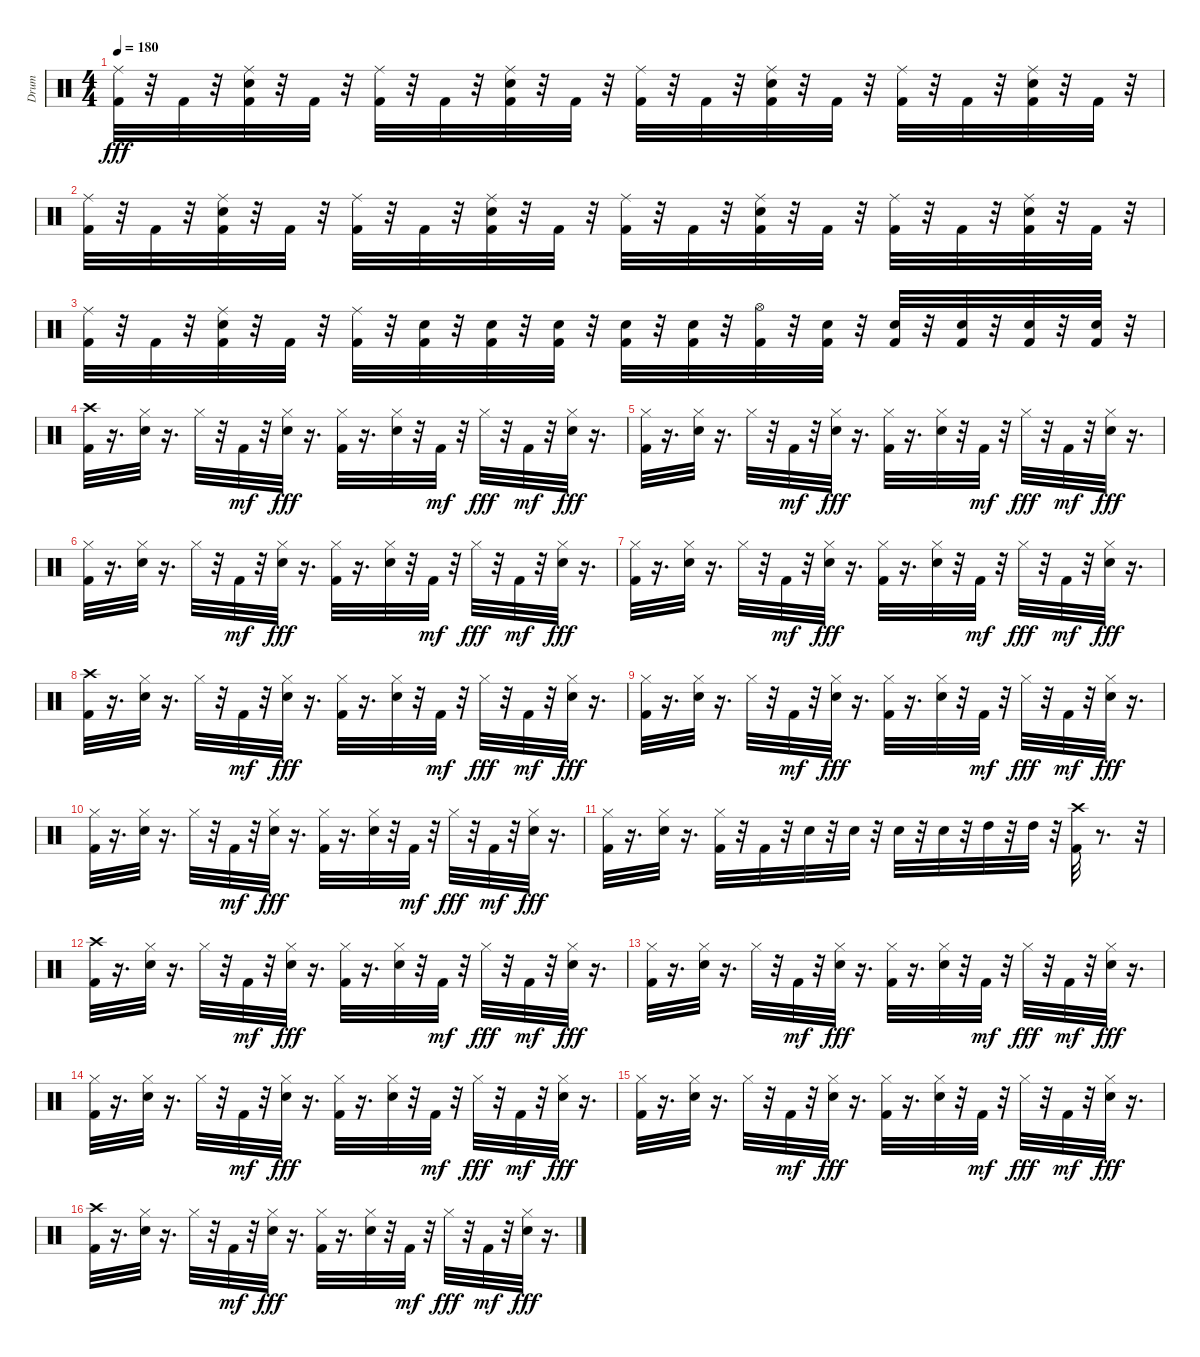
\track ("Drum" "Drum") {instrument percussion}
\staff {score}
\articulation defaults
\ts (4 4)
\tempo 180
\clef neutral
\ks c
("Kick (hit) 2" "Ride (middle)").32{dy fff} r.32 "Kick (hit) 2".32 r.32 ("Kick (hit) 2" "Snare (hit) 2" "Ride (middle)").32 r.32 "Kick (hit) 2".32 r.32 ("Kick (hit) 2" "Ride (middle)").32 r.32 "Kick (hit) 2".32 r.32 ("Kick (hit) 2" "Snare (hit) 2" "Ride (middle)").32 r.32 "Kick (hit) 2".32 r.32 ("Kick (hit) 2" "Ride (middle)").32 r.32 "Kick (hit) 2".32 r.32 ("Kick (hit) 2" "Snare (hit) 2" "Ride (middle)").32 r.32 "Kick (hit) 2".32 r.32 ("Kick (hit) 2" "Ride (middle)").32 r.32 "Kick (hit) 2".32 r.32 ("Kick (hit) 2" "Snare (hit) 2" "Ride (middle)").32 r.32 "Kick (hit) 2".32 r.32 |
("Kick (hit) 2" "Ride (middle)").32 r.32 "Kick (hit) 2".32 r.32 ("Kick (hit) 2" "Snare (hit) 2" "Ride (middle)").32 r.32 "Kick (hit) 2".32 r.32 ("Kick (hit) 2" "Ride (middle)").32 r.32 "Kick (hit) 2".32 r.32 ("Kick (hit) 2" "Snare (hit) 2" "Ride (middle)").32 r.32 "Kick (hit) 2".32 r.32 ("Kick (hit) 2" "Ride (middle)").32 r.32 "Kick (hit) 2".32 r.32 ("Kick (hit) 2" "Snare (hit) 2" "Ride (middle)").32 r.32 "Kick (hit) 2".32 r.32 ("Kick (hit) 2" "Ride (middle)").32 r.32 "Kick (hit) 2".32 r.32 ("Kick (hit) 2" "Snare (hit) 2" "Ride (middle)").32 r.32 "Kick (hit) 2".32 r.32 |
("Kick (hit) 2" "Ride (middle)").32 r.32 "Kick (hit) 2".32 r.32 ("Kick (hit) 2" "Snare (hit) 2" "Ride (middle)").32 r.32 "Kick (hit) 2".32 r.32 ("Kick (hit) 2" "Ride (middle)").32 r.32 ("Kick (hit) 2" "Snare (hit) 2").32 r.32 ("Kick (hit) 2" "Snare (hit) 2").32 r.32 ("Kick (hit) 2" "Snare (hit) 2").32 r.32 ("Kick (hit) 2" "Snare (hit) 2").32 r.32 ("Kick (hit) 2" "Snare (hit) 2").32 r.32 ("Kick (hit) 2" "Hi-Hat (open)").32 r.32 ("Kick (hit) 2" "Snare (hit) 2").32 r.32 ("Kick (hit) 2" "Snare (hit) 2").32 r.32 ("Kick (hit) 2" "Snare (hit) 2").32 r.32 ("Kick (hit) 2" "Snare (hit) 2").32 r.32 ("Kick (hit) 2" "Snare (hit) 2").32 r.32 |
("Kick (hit) 2" "Crash high (hit)").32 r.16{d} ("Hi-Hat (closed)" "Snare (hit) 2").32 r.16{d} "Hi-Hat (closed)".32 r.32 "Kick (hit) 2".32{dy mf} r.32 ("Hi-Hat (closed)" "Snare (hit) 2").32{dy fff} r.16{d} ("Kick (hit) 2" "Hi-Hat (closed)").32 r.16{d} ("Hi-Hat (closed)" "Snare (hit) 2").32 r.32 "Kick (hit) 2".32{dy mf} r.32 "Hi-Hat (closed)".32{dy fff} r.32 "Kick (hit) 2".32{dy mf} r.32 ("Hi-Hat (closed)" "Snare (hit) 2").32{dy fff} r.16{d} |
("Kick (hit) 2" "Hi-Hat (closed)").32 r.16{d} ("Hi-Hat (closed)" "Snare (hit) 2").32 r.16{d} "Hi-Hat (closed)".32 r.32 "Kick (hit) 2".32{dy mf} r.32 ("Hi-Hat (closed)" "Snare (hit) 2").32{dy fff} r.16{d} ("Kick (hit) 2" "Hi-Hat (closed)").32 r.16{d} ("Hi-Hat (closed)" "Snare (hit) 2").32 r.32 "Kick (hit) 2".32{dy mf} r.32 "Hi-Hat (closed)".32{dy fff} r.32 "Kick (hit) 2".32{dy mf} r.32 ("Hi-Hat (closed)" "Snare (hit) 2").32{dy fff} r.16{d} |
("Kick (hit) 2" "Hi-Hat (closed)").32 r.16{d} ("Hi-Hat (closed)" "Snare (hit) 2").32 r.16{d} "Hi-Hat (closed)".32 r.32 "Kick (hit) 2".32{dy mf} r.32 ("Hi-Hat (closed)" "Snare (hit) 2").32{dy fff} r.16{d} ("Kick (hit) 2" "Hi-Hat (closed)").32 r.16{d} ("Hi-Hat (closed)" "Snare (hit) 2").32 r.32 "Kick (hit) 2".32{dy mf} r.32 "Hi-Hat (closed)".32{dy fff} r.32 "Kick (hit) 2".32{dy mf} r.32 ("Hi-Hat (closed)" "Snare (hit) 2").32{dy fff} r.16{d} |
("Kick (hit) 2" "Hi-Hat (closed)").32 r.16{d} ("Hi-Hat (closed)" "Snare (hit) 2").32 r.16{d} "Hi-Hat (closed)".32 r.32 "Kick (hit) 2".32{dy mf} r.32 ("Hi-Hat (closed)" "Snare (hit) 2").32{dy fff} r.16{d} ("Kick (hit) 2" "Hi-Hat (closed)").32 r.16{d} ("Hi-Hat (closed)" "Snare (hit) 2").32 r.32 "Kick (hit) 2".32{dy mf} r.32 "Hi-Hat (closed)".32{dy fff} r.32 "Kick (hit) 2".32{dy mf} r.32 ("Hi-Hat (closed)" "Snare (hit) 2").32{dy fff} r.16{d} |
("Kick (hit) 2" "Crash high (hit)").32 r.16{d} ("Hi-Hat (closed)" "Snare (hit) 2").32 r.16{d} "Hi-Hat (closed)".32 r.32 "Kick (hit) 2".32{dy mf} r.32 ("Hi-Hat (closed)" "Snare (hit) 2").32{dy fff} r.16{d} ("Kick (hit) 2" "Hi-Hat (closed)").32 r.16{d} ("Hi-Hat (closed)" "Snare (hit) 2").32 r.32 "Kick (hit) 2".32{dy mf} r.32 "Hi-Hat (closed)".32{dy fff} r.32 "Kick (hit) 2".32{dy mf} r.32 ("Hi-Hat (closed)" "Snare (hit) 2").32{dy fff} r.16{d} |
("Kick (hit) 2" "Hi-Hat (closed)").32 r.16{d} ("Hi-Hat (closed)" "Snare (hit) 2").32 r.16{d} "Hi-Hat (closed)".32 r.32 "Kick (hit) 2".32{dy mf} r.32 ("Hi-Hat (closed)" "Snare (hit) 2").32{dy fff} r.16{d} ("Kick (hit) 2" "Hi-Hat (closed)").32 r.16{d} ("Hi-Hat (closed)" "Snare (hit) 2").32 r.32 "Kick (hit) 2".32{dy mf} r.32 "Hi-Hat (closed)".32{dy fff} r.32 "Kick (hit) 2".32{dy mf} r.32 ("Hi-Hat (closed)" "Snare (hit) 2").32{dy fff} r.16{d} |
("Kick (hit) 2" "Hi-Hat (closed)").32 r.16{d} ("Hi-Hat (closed)" "Snare (hit) 2").32 r.16{d} "Hi-Hat (closed)".32 r.32 "Kick (hit) 2".32{dy mf} r.32 ("Hi-Hat (closed)" "Snare (hit) 2").32{dy fff} r.16{d} ("Kick (hit) 2" "Hi-Hat (closed)").32 r.16{d} ("Hi-Hat (closed)" "Snare (hit) 2").32 r.32 "Kick (hit) 2".32{dy mf} r.32 "Hi-Hat (closed)".32{dy fff} r.32 "Kick (hit) 2".32{dy mf} r.32 ("Hi-Hat (closed)" "Snare (hit) 2").32{dy fff} r.16{d} |
("Kick (hit) 2" "Hi-Hat (closed)").32 r.16{d} ("Snare (hit) 2" "Hi-Hat (closed)").32 r.16{d} ("Kick (hit) 2" "Hi-Hat (closed)").32 r.32 "Kick (hit) 2".32 r.32 "Snare (hit) 2".32 r.32 "Snare (hit) 2".32 r.32 "Snare (hit) 2".32 r.32 "Snare (hit) 2".32 r.32 "High Tom (hit)".32 r.32 "High Tom (hit)".32 r.32 ("Kick (hit) 2" "Crash high (hit)").32 r.8{d} r.32 |
("Kick (hit) 2" "Crash high (hit)").32 r.16{d} ("Hi-Hat (closed)" "Snare (hit) 2").32 r.16{d} "Hi-Hat (closed)".32 r.32 "Kick (hit) 2".32{dy mf} r.32 ("Hi-Hat (closed)" "Snare (hit) 2").32{dy fff} r.16{d} ("Kick (hit) 2" "Hi-Hat (closed)").32 r.16{d} ("Hi-Hat (closed)" "Snare (hit) 2").32 r.32 "Kick (hit) 2".32{dy mf} r.32 "Hi-Hat (closed)".32{dy fff} r.32 "Kick (hit) 2".32{dy mf} r.32 ("Hi-Hat (closed)" "Snare (hit) 2").32{dy fff} r.16{d} |
("Kick (hit) 2" "Hi-Hat (closed)").32 r.16{d} ("Hi-Hat (closed)" "Snare (hit) 2").32 r.16{d} "Hi-Hat (closed)".32 r.32 "Kick (hit) 2".32{dy mf} r.32 ("Hi-Hat (closed)" "Snare (hit) 2").32{dy fff} r.16{d} ("Kick (hit) 2" "Hi-Hat (closed)").32 r.16{d} ("Hi-Hat (closed)" "Snare (hit) 2").32 r.32 "Kick (hit) 2".32{dy mf} r.32 "Hi-Hat (closed)".32{dy fff} r.32 "Kick (hit) 2".32{dy mf} r.32 ("Hi-Hat (closed)" "Snare (hit) 2").32{dy fff} r.16{d} |
("Kick (hit) 2" "Hi-Hat (closed)").32 r.16{d} ("Hi-Hat (closed)" "Snare (hit) 2").32 r.16{d} "Hi-Hat (closed)".32 r.32 "Kick (hit) 2".32{dy mf} r.32 ("Hi-Hat (closed)" "Snare (hit) 2").32{dy fff} r.16{d} ("Kick (hit) 2" "Hi-Hat (closed)").32 r.16{d} ("Hi-Hat (closed)" "Snare (hit) 2").32 r.32 "Kick (hit) 2".32{dy mf} r.32 "Hi-Hat (closed)".32{dy fff} r.32 "Kick (hit) 2".32{dy mf} r.32 ("Hi-Hat (closed)" "Snare (hit) 2").32{dy fff} r.16{d} |
("Kick (hit) 2" "Hi-Hat (closed)").32 r.16{d} ("Hi-Hat (closed)" "Snare (hit) 2").32 r.16{d} "Hi-Hat (closed)".32 r.32 "Kick (hit) 2".32{dy mf} r.32 ("Hi-Hat (closed)" "Snare (hit) 2").32{dy fff} r.16{d} ("Kick (hit) 2" "Hi-Hat (closed)").32 r.16{d} ("Hi-Hat (closed)" "Snare (hit) 2").32 r.32 "Kick (hit) 2".32{dy mf} r.32 "Hi-Hat (closed)".32{dy fff} r.32 "Kick (hit) 2".32{dy mf} r.32 ("Hi-Hat (closed)" "Snare (hit) 2").32{dy fff} r.16{d} |
("Kick (hit) 2" "Crash high (hit)").32 r.16{d} ("Hi-Hat (closed)" "Snare (hit) 2").32 r.16{d} "Hi-Hat (closed)".32 r.32 "Kick (hit) 2".32{dy mf} r.32 ("Hi-Hat (closed)" "Snare (hit) 2").32{dy fff} r.16{d} ("Kick (hit) 2" "Hi-Hat (closed)").32 r.16{d} ("Hi-Hat (closed)" "Snare (hit) 2").32 r.32 "Kick (hit) 2".32{dy mf} r.32 "Hi-Hat (closed)".32{dy fff} r.32 "Kick (hit) 2".32{dy mf} r.32 ("Hi-Hat (closed)" "Snare (hit) 2").32{dy fff} r.16{d}
